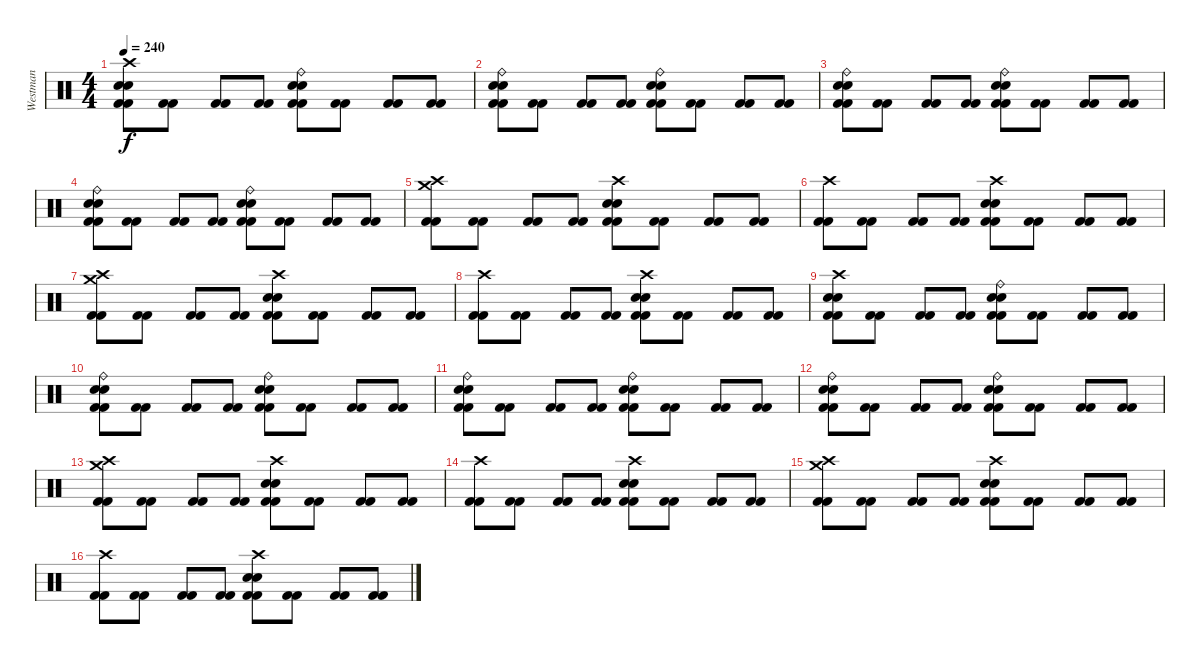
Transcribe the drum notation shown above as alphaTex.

\track ("Westman" "Westman") {instrument percussion}
\staff {score}
\articulation defaults
\ts (4 4)
\tempo 240
\clef neutral
\ks c
("Kick (hit) 2" "Kick (hit) 2" "Electric Snare (hit)" "Snare (hit) 2" "Crash high (hit)").8{dy f} ("Kick (hit) 2" "Kick (hit) 2").8 ("Kick (hit) 2" "Kick (hit) 2").8 ("Kick (hit) 2" "Kick (hit) 2").8 ("Kick (hit) 2" "Kick (hit) 2" "Electric Snare (hit)" "Electric Snare (hit)" "Ride (bell)").8 ("Kick (hit) 2" "Kick (hit) 2").8 ("Kick (hit) 2" "Kick (hit) 2").8 ("Kick (hit) 2" "Kick (hit) 2").8 |
("Kick (hit) 2" "Kick (hit) 2" "Snare (hit) 2" "Electric Snare (hit)" "Ride (bell)").8 ("Kick (hit) 2" "Kick (hit) 2").8 ("Kick (hit) 2" "Kick (hit) 2").8 ("Kick (hit) 2" "Kick (hit) 2").8 ("Kick (hit) 2" "Kick (hit) 2" "Electric Snare (hit)" "Snare (hit) 2" "Ride (bell)").8 ("Kick (hit) 2" "Kick (hit) 2").8 ("Kick (hit) 2" "Kick (hit) 2").8 ("Kick (hit) 2" "Kick (hit) 2").8 |
("Kick (hit) 2" "Kick (hit) 2" "Snare (hit) 2" "Electric Snare (hit)" "Ride (bell)").8 ("Kick (hit) 2" "Kick (hit) 2").8 ("Kick (hit) 2" "Kick (hit) 2").8 ("Kick (hit) 2" "Kick (hit) 2").8 ("Kick (hit) 2" "Kick (hit) 2" "Electric Snare (hit)" "Snare (hit) 2" "Ride (bell)").8 ("Kick (hit) 2" "Kick (hit) 2").8 ("Kick (hit) 2" "Kick (hit) 2").8 ("Kick (hit) 2" "Kick (hit) 2").8 |
("Kick (hit) 2" "Kick (hit) 2" "Snare (hit) 2" "Electric Snare (hit)" "Ride (bell)").8 ("Kick (hit) 2" "Kick (hit) 2").8 ("Kick (hit) 2" "Kick (hit) 2").8 ("Kick (hit) 2" "Kick (hit) 2").8 ("Kick (hit) 2" "Kick (hit) 2" "Electric Snare (hit)" "Snare (hit) 2" "Ride (bell)").8 ("Kick (hit) 2" "Kick (hit) 2").8 ("Kick (hit) 2" "Kick (hit) 2").8 ("Kick (hit) 2" "Kick (hit) 2").8 |
("Kick (hit) 2" "Kick (hit) 2" "Crash high (hit)" "Crash medium (hit)").8 ("Kick (hit) 2" "Kick (hit) 2").8 ("Kick (hit) 2" "Kick (hit) 2").8 ("Kick (hit) 2" "Kick (hit) 2").8 ("Kick (hit) 2" "Kick (hit) 2" "Electric Snare (hit)" "Crash high (hit)" "Snare (hit) 2").8 ("Kick (hit) 2" "Kick (hit) 2").8 ("Kick (hit) 2" "Kick (hit) 2").8 ("Kick (hit) 2" "Kick (hit) 2").8 |
("Kick (hit) 2" "Kick (hit) 2" "Crash high (hit)").8 ("Kick (hit) 2" "Kick (hit) 2").8 ("Kick (hit) 2" "Kick (hit) 2").8 ("Kick (hit) 2" "Kick (hit) 2").8 ("Kick (hit) 2" "Kick (hit) 2" "Crash high (hit)" "Electric Snare (hit)" "Snare (hit) 2").8 ("Kick (hit) 2" "Kick (hit) 2").8 ("Kick (hit) 2" "Kick (hit) 2").8 ("Kick (hit) 2" "Kick (hit) 2").8 |
("Kick (hit) 2" "Kick (hit) 2" "Crash high (hit)" "Crash medium (hit)").8 ("Kick (hit) 2" "Kick (hit) 2").8 ("Kick (hit) 2" "Kick (hit) 2").8 ("Kick (hit) 2" "Kick (hit) 2").8 ("Kick (hit) 2" "Kick (hit) 2" "Electric Snare (hit)" "Crash high (hit)" "Snare (hit) 2").8 ("Kick (hit) 2" "Kick (hit) 2").8 ("Kick (hit) 2" "Kick (hit) 2").8 ("Kick (hit) 2" "Kick (hit) 2").8 |
("Kick (hit) 2" "Kick (hit) 2" "Crash high (hit)").8 ("Kick (hit) 2" "Kick (hit) 2").8 ("Kick (hit) 2" "Kick (hit) 2").8 ("Kick (hit) 2" "Kick (hit) 2").8 ("Kick (hit) 2" "Kick (hit) 2" "Crash high (hit)" "Electric Snare (hit)" "Snare (hit) 2").8 ("Kick (hit) 2" "Kick (hit) 2").8 ("Kick (hit) 2" "Kick (hit) 2").8 ("Kick (hit) 2" "Kick (hit) 2").8 |
("Kick (hit) 2" "Kick (hit) 2" "Electric Snare (hit)" "Snare (hit) 2" "Crash high (hit)").8 ("Kick (hit) 2" "Kick (hit) 2").8 ("Kick (hit) 2" "Kick (hit) 2").8 ("Kick (hit) 2" "Kick (hit) 2").8 ("Kick (hit) 2" "Kick (hit) 2" "Electric Snare (hit)" "Electric Snare (hit)" "Ride (bell)").8 ("Kick (hit) 2" "Kick (hit) 2").8 ("Kick (hit) 2" "Kick (hit) 2").8 ("Kick (hit) 2" "Kick (hit) 2").8 |
("Kick (hit) 2" "Kick (hit) 2" "Snare (hit) 2" "Electric Snare (hit)" "Ride (bell)").8 ("Kick (hit) 2" "Kick (hit) 2").8 ("Kick (hit) 2" "Kick (hit) 2").8 ("Kick (hit) 2" "Kick (hit) 2").8 ("Kick (hit) 2" "Kick (hit) 2" "Electric Snare (hit)" "Snare (hit) 2" "Ride (bell)").8 ("Kick (hit) 2" "Kick (hit) 2").8 ("Kick (hit) 2" "Kick (hit) 2").8 ("Kick (hit) 2" "Kick (hit) 2").8 |
("Kick (hit) 2" "Kick (hit) 2" "Snare (hit) 2" "Electric Snare (hit)" "Ride (bell)").8 ("Kick (hit) 2" "Kick (hit) 2").8 ("Kick (hit) 2" "Kick (hit) 2").8 ("Kick (hit) 2" "Kick (hit) 2").8 ("Kick (hit) 2" "Kick (hit) 2" "Electric Snare (hit)" "Snare (hit) 2" "Ride (bell)").8 ("Kick (hit) 2" "Kick (hit) 2").8 ("Kick (hit) 2" "Kick (hit) 2").8 ("Kick (hit) 2" "Kick (hit) 2").8 |
("Kick (hit) 2" "Kick (hit) 2" "Snare (hit) 2" "Electric Snare (hit)" "Ride (bell)").8 ("Kick (hit) 2" "Kick (hit) 2").8 ("Kick (hit) 2" "Kick (hit) 2").8 ("Kick (hit) 2" "Kick (hit) 2").8 ("Kick (hit) 2" "Kick (hit) 2" "Electric Snare (hit)" "Snare (hit) 2" "Ride (bell)").8 ("Kick (hit) 2" "Kick (hit) 2").8 ("Kick (hit) 2" "Kick (hit) 2").8 ("Kick (hit) 2" "Kick (hit) 2").8 |
("Kick (hit) 2" "Kick (hit) 2" "Crash high (hit)" "Crash medium (hit)").8 ("Kick (hit) 2" "Kick (hit) 2").8 ("Kick (hit) 2" "Kick (hit) 2").8 ("Kick (hit) 2" "Kick (hit) 2").8 ("Kick (hit) 2" "Kick (hit) 2" "Electric Snare (hit)" "Crash high (hit)" "Snare (hit) 2").8 ("Kick (hit) 2" "Kick (hit) 2").8 ("Kick (hit) 2" "Kick (hit) 2").8 ("Kick (hit) 2" "Kick (hit) 2").8 |
("Kick (hit) 2" "Kick (hit) 2" "Crash high (hit)").8 ("Kick (hit) 2" "Kick (hit) 2").8 ("Kick (hit) 2" "Kick (hit) 2").8 ("Kick (hit) 2" "Kick (hit) 2").8 ("Kick (hit) 2" "Kick (hit) 2" "Crash high (hit)" "Electric Snare (hit)" "Snare (hit) 2").8 ("Kick (hit) 2" "Kick (hit) 2").8 ("Kick (hit) 2" "Kick (hit) 2").8 ("Kick (hit) 2" "Kick (hit) 2").8 |
("Kick (hit) 2" "Kick (hit) 2" "Crash high (hit)" "Crash medium (hit)").8 ("Kick (hit) 2" "Kick (hit) 2").8 ("Kick (hit) 2" "Kick (hit) 2").8 ("Kick (hit) 2" "Kick (hit) 2").8 ("Kick (hit) 2" "Kick (hit) 2" "Electric Snare (hit)" "Crash high (hit)" "Snare (hit) 2").8 ("Kick (hit) 2" "Kick (hit) 2").8 ("Kick (hit) 2" "Kick (hit) 2").8 ("Kick (hit) 2" "Kick (hit) 2").8 |
("Kick (hit) 2" "Kick (hit) 2" "Crash high (hit)").8 ("Kick (hit) 2" "Kick (hit) 2").8 ("Kick (hit) 2" "Kick (hit) 2").8 ("Kick (hit) 2" "Kick (hit) 2").8 ("Kick (hit) 2" "Kick (hit) 2" "Crash high (hit)" "Electric Snare (hit)" "Snare (hit) 2").8 ("Kick (hit) 2" "Kick (hit) 2").8 ("Kick (hit) 2" "Kick (hit) 2").8 ("Kick (hit) 2" "Kick (hit) 2").8
